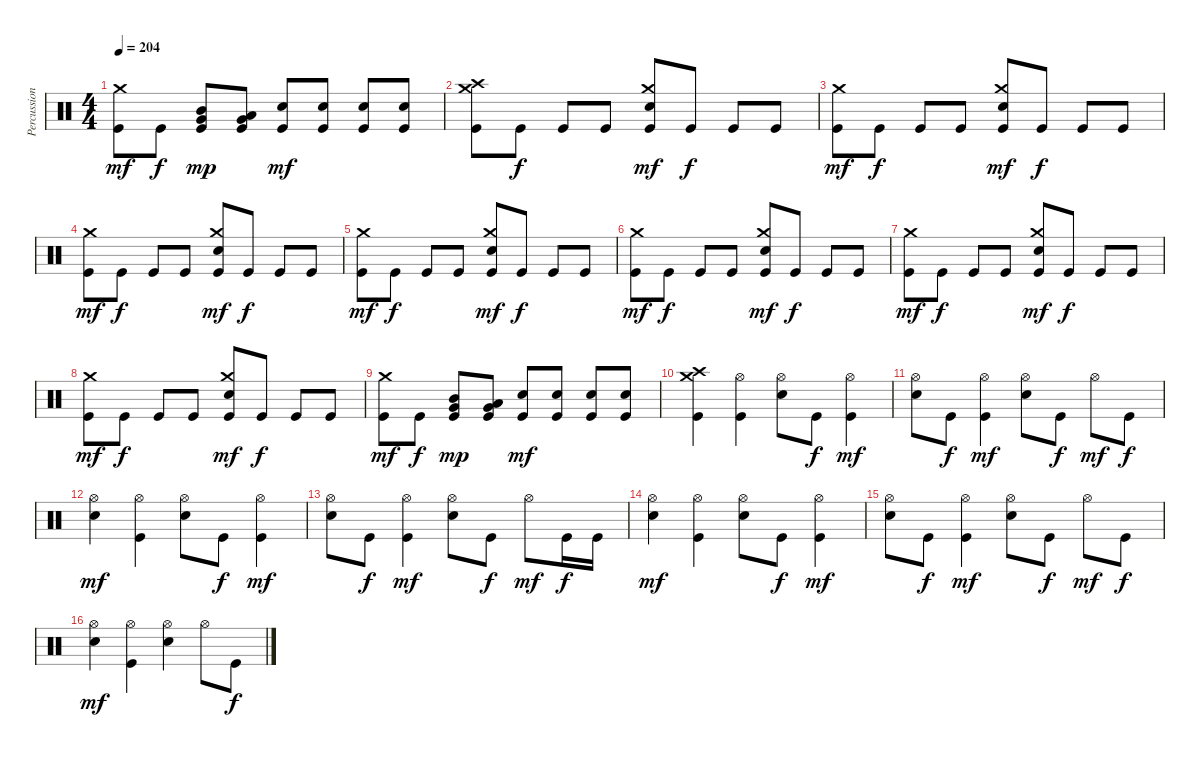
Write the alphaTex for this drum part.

\track ("Percussions" "Percussion") {instrument percussion}
\staff {score}
\articulation defaults
\ts (4 4)
\tempo 204
\clef neutral
\ks c
("Kick (hit)" "Crash medium (hit)").8{dy mf} "Kick (hit)".8{dy f} ("Kick (hit)" "Very Low Tom (hit)" "Mid Tom (hit)").8{dy mp} ("Kick (hit)" "Very Low Tom (hit)" "Low Tom (hit)").8 ("Kick (hit)" "Electric Snare (hit)").8{dy mf} ("Kick (hit)" "Electric Snare (hit)").8 ("Kick (hit)" "Electric Snare (hit)").8 ("Kick (hit)" "Electric Snare (hit)").8 |
("Kick (hit)" "Crash medium (hit)" "Crash high (hit)").8 "Kick (hit)".8{dy f} "Kick (hit)".8 "Kick (hit)".8 ("Kick (hit)" "Electric Snare (hit)" "Crash medium (hit)").8{dy mf} "Kick (hit)".8{dy f} "Kick (hit)".8 "Kick (hit)".8 |
("Kick (hit)" "Crash medium (hit)").8{dy mf} "Kick (hit)".8{dy f} "Kick (hit)".8 "Kick (hit)".8 ("Kick (hit)" "Electric Snare (hit)" "Crash medium (hit)").8{dy mf} "Kick (hit)".8{dy f} "Kick (hit)".8 "Kick (hit)".8 |
("Kick (hit)" "Crash medium (hit)").8{dy mf} "Kick (hit)".8{dy f} "Kick (hit)".8 "Kick (hit)".8 ("Kick (hit)" "Electric Snare (hit)" "Crash medium (hit)").8{dy mf} "Kick (hit)".8{dy f} "Kick (hit)".8 "Kick (hit)".8 |
("Kick (hit)" "Crash medium (hit)").8{dy mf} "Kick (hit)".8{dy f} "Kick (hit)".8 "Kick (hit)".8 ("Kick (hit)" "Electric Snare (hit)" "Crash medium (hit)").8{dy mf} "Kick (hit)".8{dy f} "Kick (hit)".8 "Kick (hit)".8 |
("Kick (hit)" "Crash medium (hit)").8{dy mf} "Kick (hit)".8{dy f} "Kick (hit)".8 "Kick (hit)".8 ("Kick (hit)" "Electric Snare (hit)" "Crash medium (hit)").8{dy mf} "Kick (hit)".8{dy f} "Kick (hit)".8 "Kick (hit)".8 |
("Kick (hit)" "Crash medium (hit)").8{dy mf} "Kick (hit)".8{dy f} "Kick (hit)".8 "Kick (hit)".8 ("Kick (hit)" "Electric Snare (hit)" "Crash medium (hit)").8{dy mf} "Kick (hit)".8{dy f} "Kick (hit)".8 "Kick (hit)".8 |
("Kick (hit)" "Crash medium (hit)").8{dy mf} "Kick (hit)".8{dy f} "Kick (hit)".8 "Kick (hit)".8 ("Kick (hit)" "Electric Snare (hit)" "Crash medium (hit)").8{dy mf} "Kick (hit)".8{dy f} "Kick (hit)".8 "Kick (hit)".8 |
("Kick (hit)" "Crash medium (hit)").8{dy mf} "Kick (hit)".8{dy f} ("Kick (hit)" "Very Low Tom (hit)" "Mid Tom (hit)").8{dy mp} ("Kick (hit)" "Very Low Tom (hit)" "Low Tom (hit)").8 ("Kick (hit)" "Electric Snare (hit)").8{dy mf} ("Kick (hit)" "Electric Snare (hit)").8 ("Kick (hit)" "Electric Snare (hit)").8 ("Kick (hit)" "Electric Snare (hit)").8 |
("Kick (hit)" "Crash medium (hit)" "Crash high (hit)").4 ("Kick (hit)" "Hi-Hat (open)").4 ("Electric Snare (hit)" "Hi-Hat (open)").8 "Kick (hit)".8{dy f} ("Kick (hit)" "Hi-Hat (open)").4{dy mf} |
("Electric Snare (hit)" "Hi-Hat (open)").8 "Kick (hit)".8{dy f} ("Kick (hit)" "Hi-Hat (open)").4{dy mf} ("Electric Snare (hit)" "Hi-Hat (open)").8 "Kick (hit)".8{dy f} "Hi-Hat (open)".8{dy mf} "Kick (hit)".8{dy f} |
("Electric Snare (hit)" "Hi-Hat (open)").4{dy mf} ("Kick (hit)" "Hi-Hat (open)").4 ("Electric Snare (hit)" "Hi-Hat (open)").8 "Kick (hit)".8{dy f} ("Kick (hit)" "Hi-Hat (open)").4{dy mf} |
("Electric Snare (hit)" "Hi-Hat (open)").8 "Kick (hit)".8{dy f} ("Kick (hit)" "Hi-Hat (open)").4{dy mf} ("Electric Snare (hit)" "Hi-Hat (open)").8 "Kick (hit)".8{dy f} "Hi-Hat (open)".8{dy mf} "Kick (hit)".16{dy f} "Kick (hit)".16 |
("Electric Snare (hit)" "Hi-Hat (open)").4{dy mf} ("Kick (hit)" "Hi-Hat (open)").4 ("Electric Snare (hit)" "Hi-Hat (open)").8 "Kick (hit)".8{dy f} ("Kick (hit)" "Hi-Hat (open)").4{dy mf} |
("Electric Snare (hit)" "Hi-Hat (open)").8 "Kick (hit)".8{dy f} ("Kick (hit)" "Hi-Hat (open)").4{dy mf} ("Electric Snare (hit)" "Hi-Hat (open)").8 "Kick (hit)".8{dy f} "Hi-Hat (open)".8{dy mf} "Kick (hit)".8{dy f} |
("Electric Snare (hit)" "Hi-Hat (open)").4{dy mf} ("Kick (hit)" "Hi-Hat (open)").4 ("Electric Snare (hit)" "Hi-Hat (open)").4 "Hi-Hat (open)".8 "Kick (hit)".8{dy f}
